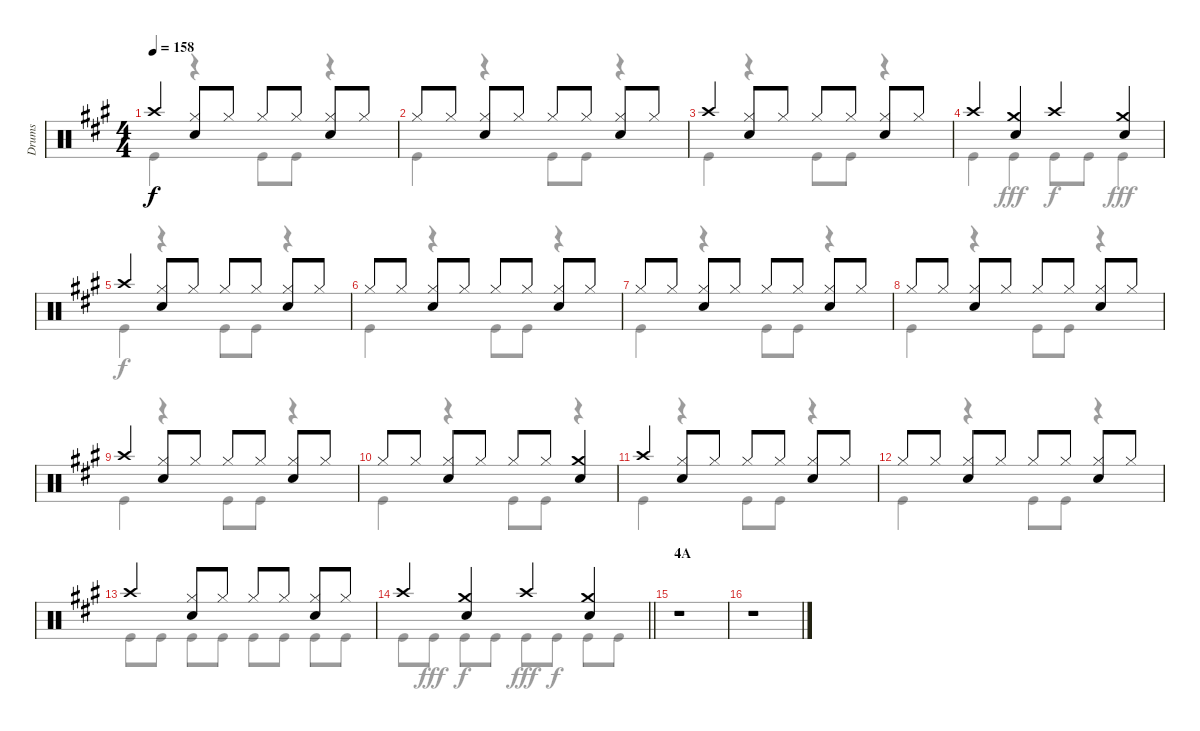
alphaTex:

\track ("Drums" "Drums") {instrument percussion}
\staff {score}
\articulation defaults
\voice
\ts (4 4)
\tempo 158
\clef neutral
\ks a "Crash high (hit)".4{dy f}
("Hi-Hat (closed)" "Snare (hit) 2").8 "Hi-Hat (closed)".8 "Hi-Hat (closed)".8 "Hi-Hat (closed)".8 ("Hi-Hat (closed)" "Snare (hit) 2").8 "Hi-Hat (closed)".8 |
"Hi-Hat (closed)".8 "Hi-Hat (closed)".8 ("Hi-Hat (closed)" "Snare (hit) 2").8 "Hi-Hat (closed)".8 "Hi-Hat (closed)".8 "Hi-Hat (closed)".8 ("Hi-Hat (closed)" "Snare (hit) 2").8 "Hi-Hat (closed)".8 |
"Crash high (hit)".4 ("Hi-Hat (closed)" "Snare (hit) 2").8 "Hi-Hat (closed)".8 "Hi-Hat (closed)".8 "Hi-Hat (closed)".8 ("Hi-Hat (closed)" "Snare (hit) 2").8 "Hi-Hat (closed)".8 |
"Crash high (hit)".4 ("Crash medium (hit)" "Snare (hit) 2").4 "Crash high (hit)".4 ("Crash medium (hit)" "Snare (hit) 2").4 |
"Crash high (hit)".4 ("Hi-Hat (closed)" "Snare (hit) 2").8 "Hi-Hat (closed)".8 "Hi-Hat (closed)".8 "Hi-Hat (closed)".8 ("Hi-Hat (closed)" "Snare (hit) 2").8 "Hi-Hat (closed)".8 |
"Hi-Hat (closed)".8 "Hi-Hat (closed)".8 ("Hi-Hat (closed)" "Snare (hit) 2").8 "Hi-Hat (closed)".8 "Hi-Hat (closed)".8 "Hi-Hat (closed)".8 ("Hi-Hat (closed)" "Snare (hit) 2").8 "Hi-Hat (closed)".8 |
"Hi-Hat (closed)".8 "Hi-Hat (closed)".8 ("Hi-Hat (closed)" "Snare (hit) 2").8 "Hi-Hat (closed)".8 "Hi-Hat (closed)".8 "Hi-Hat (closed)".8 ("Hi-Hat (closed)" "Snare (hit) 2").8 "Hi-Hat (closed)".8 |
"Hi-Hat (closed)".8 "Hi-Hat (closed)".8 ("Hi-Hat (closed)" "Snare (hit) 2").8 "Hi-Hat (closed)".8 "Hi-Hat (closed)".8 "Hi-Hat (closed)".8 ("Hi-Hat (closed)" "Snare (hit) 2").8 "Hi-Hat (closed)".8 |
"Crash high (hit)".4 ("Hi-Hat (closed)" "Snare (hit) 2").8 "Hi-Hat (closed)".8 "Hi-Hat (closed)".8 "Hi-Hat (closed)".8 ("Hi-Hat (closed)" "Snare (hit) 2").8 "Hi-Hat (closed)".8 |
"Hi-Hat (closed)".8 "Hi-Hat (closed)".8 ("Hi-Hat (closed)" "Snare (hit) 2").8 "Hi-Hat (closed)".8 "Hi-Hat (closed)".8 "Hi-Hat (closed)".8 ("Crash medium (hit)" "Snare (hit) 2").4 |
"Crash high (hit)".4 ("Hi-Hat (closed)" "Snare (hit) 2").8 "Hi-Hat (closed)".8 "Hi-Hat (closed)".8 "Hi-Hat (closed)".8 ("Hi-Hat (closed)" "Snare (hit) 2").8 "Hi-Hat (closed)".8 |
"Hi-Hat (closed)".8 "Hi-Hat (closed)".8 ("Hi-Hat (closed)" "Snare (hit) 2").8 "Hi-Hat (closed)".8 "Hi-Hat (closed)".8 "Hi-Hat (closed)".8 ("Hi-Hat (closed)" "Snare (hit) 2").8 "Hi-Hat (closed)".8 |
"Crash high (hit)".4 ("Hi-Hat (closed)" "Snare (hit) 2").8 "Hi-Hat (closed)".8 "Hi-Hat (closed)".8 "Hi-Hat (closed)".8 ("Hi-Hat (closed)" "Snare (hit) 2").8 "Hi-Hat (closed)".8 |
\barLineRight lightlight "Crash high (hit)".4
("Crash medium (hit)" "Snare (hit) 2").4 "Crash high (hit)".4 ("Crash medium (hit)" "Snare (hit) 2").4 |
\section ("" "4A")
r.1 |
r.1
\voice
\clef neutral
\ottava regular
\simile none
\ks a "Kick (hit)".4{dy f}
r.4 "Kick (hit)".8 "Kick (hit)".8 r.4 |
"Kick (hit)".4 r.4 "Kick (hit)".8 "Kick (hit)".8 r.4 |
"Kick (hit)".4 r.4 "Kick (hit)".8 "Kick (hit)".8 r.4 |
"Kick (hit)".4 "Kick (hit)".4{dy fff} "Kick (hit)".8{dy f} "Kick (hit)".8 "Kick (hit)".4{dy fff} |
"Kick (hit)".4{dy f} r.4 "Kick (hit)".8 "Kick (hit)".8 r.4 |
"Kick (hit)".4 r.4 "Kick (hit)".8 "Kick (hit)".8 r.4 |
"Kick (hit)".4 r.4 "Kick (hit)".8 "Kick (hit)".8 r.4 |
"Kick (hit)".4 r.4 "Kick (hit)".8 "Kick (hit)".8 r.4 |
"Kick (hit)".4 r.4 "Kick (hit)".8 "Kick (hit)".8 r.4 |
"Kick (hit)".4 r.4 "Kick (hit)".8 "Kick (hit)".8 r.4 |
"Kick (hit)".4 r.4 "Kick (hit)".8 "Kick (hit)".8 r.4 |
"Kick (hit)".4 r.4 "Kick (hit)".8 "Kick (hit)".8 r.4 |
"Kick (hit)".8 "Kick (hit)".8 "Kick (hit)".8 "Kick (hit)".8 "Kick (hit)".8 "Kick (hit)".8 "Kick (hit)".8 "Kick (hit)".8 |
\barLineRight lightlight "Kick (hit)".8 "Kick (hit)".8{dy fff} "Kick (hit)".8{dy f} "Kick (hit)".8 "Kick (hit)".8{dy fff} "Kick (hit)".8{dy f} "Kick (hit)".8 "Kick (hit)".8
|
|
